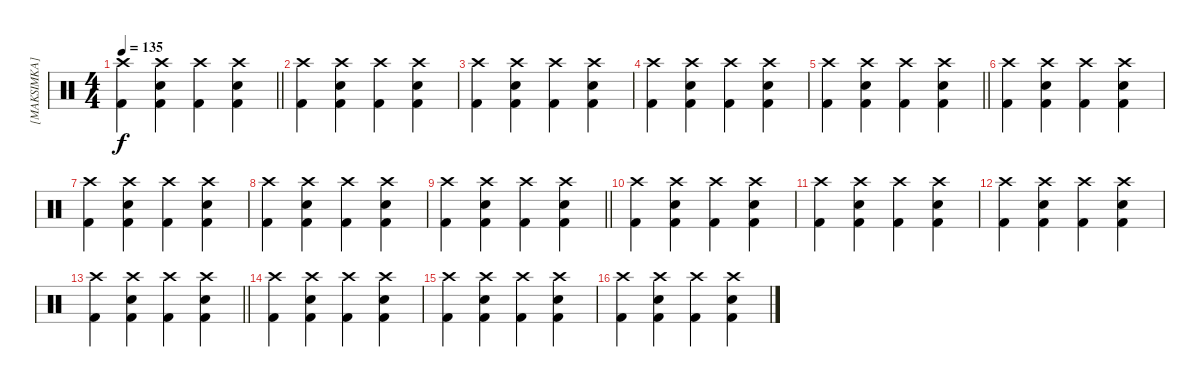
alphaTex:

\track ("[MAKSIMKA]" "[MAKSIMKA]") {instrument percussion}
\staff {score}
\articulation defaults
\ts (4 4)
\tempo 135
\clef neutral
\barLineRight lightlight
\ks c
("Crash high (hit)" "Kick (hit) 2").4{dy f} ("Crash high (hit)" "Kick (hit) 2" "Snare (hit) 2").4 ("Crash high (hit)" "Kick (hit) 2").4 ("Crash high (hit)" "Kick (hit) 2" "Snare (hit) 2").4 |
("Crash high (hit)" "Kick (hit) 2").4 ("Crash high (hit)" "Kick (hit) 2" "Snare (hit) 2").4 ("Crash high (hit)" "Kick (hit) 2").4 ("Crash high (hit)" "Kick (hit) 2" "Snare (hit) 2").4 |
("Crash high (hit)" "Kick (hit) 2").4 ("Crash high (hit)" "Kick (hit) 2" "Snare (hit) 2").4 ("Crash high (hit)" "Kick (hit) 2").4 ("Crash high (hit)" "Kick (hit) 2" "Snare (hit) 2").4 |
("Crash high (hit)" "Kick (hit) 2").4 ("Crash high (hit)" "Kick (hit) 2" "Snare (hit) 2").4 ("Crash high (hit)" "Kick (hit) 2").4 ("Crash high (hit)" "Kick (hit) 2" "Snare (hit) 2").4 |
\barLineRight lightlight
("Crash high (hit)" "Kick (hit) 2").4 ("Crash high (hit)" "Kick (hit) 2" "Snare (hit) 2").4 ("Crash high (hit)" "Kick (hit) 2").4 ("Crash high (hit)" "Kick (hit) 2" "Snare (hit) 2").4 |
("Crash high (hit)" "Kick (hit) 2").4 ("Crash high (hit)" "Kick (hit) 2" "Snare (hit) 2").4 ("Crash high (hit)" "Kick (hit) 2").4 ("Crash high (hit)" "Kick (hit) 2" "Snare (hit) 2").4 |
("Crash high (hit)" "Kick (hit) 2").4 ("Crash high (hit)" "Kick (hit) 2" "Snare (hit) 2").4 ("Crash high (hit)" "Kick (hit) 2").4 ("Crash high (hit)" "Kick (hit) 2" "Snare (hit) 2").4 |
("Crash high (hit)" "Kick (hit) 2").4 ("Crash high (hit)" "Kick (hit) 2" "Snare (hit) 2").4 ("Crash high (hit)" "Kick (hit) 2").4 ("Crash high (hit)" "Kick (hit) 2" "Snare (hit) 2").4 |
\barLineRight lightlight
("Crash high (hit)" "Kick (hit) 2").4 ("Crash high (hit)" "Kick (hit) 2" "Snare (hit) 2").4 ("Crash high (hit)" "Kick (hit) 2").4 ("Crash high (hit)" "Kick (hit) 2" "Snare (hit) 2").4 |
("Crash high (hit)" "Kick (hit) 2").4 ("Crash high (hit)" "Kick (hit) 2" "Snare (hit) 2").4 ("Crash high (hit)" "Kick (hit) 2").4 ("Crash high (hit)" "Kick (hit) 2" "Snare (hit) 2").4 |
("Crash high (hit)" "Kick (hit) 2").4 ("Crash high (hit)" "Kick (hit) 2" "Snare (hit) 2").4 ("Crash high (hit)" "Kick (hit) 2").4 ("Crash high (hit)" "Kick (hit) 2" "Snare (hit) 2").4 |
("Crash high (hit)" "Kick (hit) 2").4 ("Crash high (hit)" "Kick (hit) 2" "Snare (hit) 2").4 ("Crash high (hit)" "Kick (hit) 2").4 ("Crash high (hit)" "Kick (hit) 2" "Snare (hit) 2").4 |
\barLineRight lightlight
("Crash high (hit)" "Kick (hit) 2").4 ("Crash high (hit)" "Kick (hit) 2" "Snare (hit) 2").4 ("Crash high (hit)" "Kick (hit) 2").4 ("Crash high (hit)" "Kick (hit) 2" "Snare (hit) 2").4 |
("Crash high (hit)" "Kick (hit) 2").4 ("Crash high (hit)" "Kick (hit) 2" "Snare (hit) 2").4 ("Crash high (hit)" "Kick (hit) 2").4 ("Crash high (hit)" "Kick (hit) 2" "Snare (hit) 2").4 |
("Crash high (hit)" "Kick (hit) 2").4 ("Crash high (hit)" "Kick (hit) 2" "Snare (hit) 2").4 ("Crash high (hit)" "Kick (hit) 2").4 ("Crash high (hit)" "Kick (hit) 2" "Snare (hit) 2").4 |
("Crash high (hit)" "Kick (hit) 2").4 ("Crash high (hit)" "Kick (hit) 2" "Snare (hit) 2").4 ("Crash high (hit)" "Kick (hit) 2").4 ("Crash high (hit)" "Kick (hit) 2" "Snare (hit) 2").4
